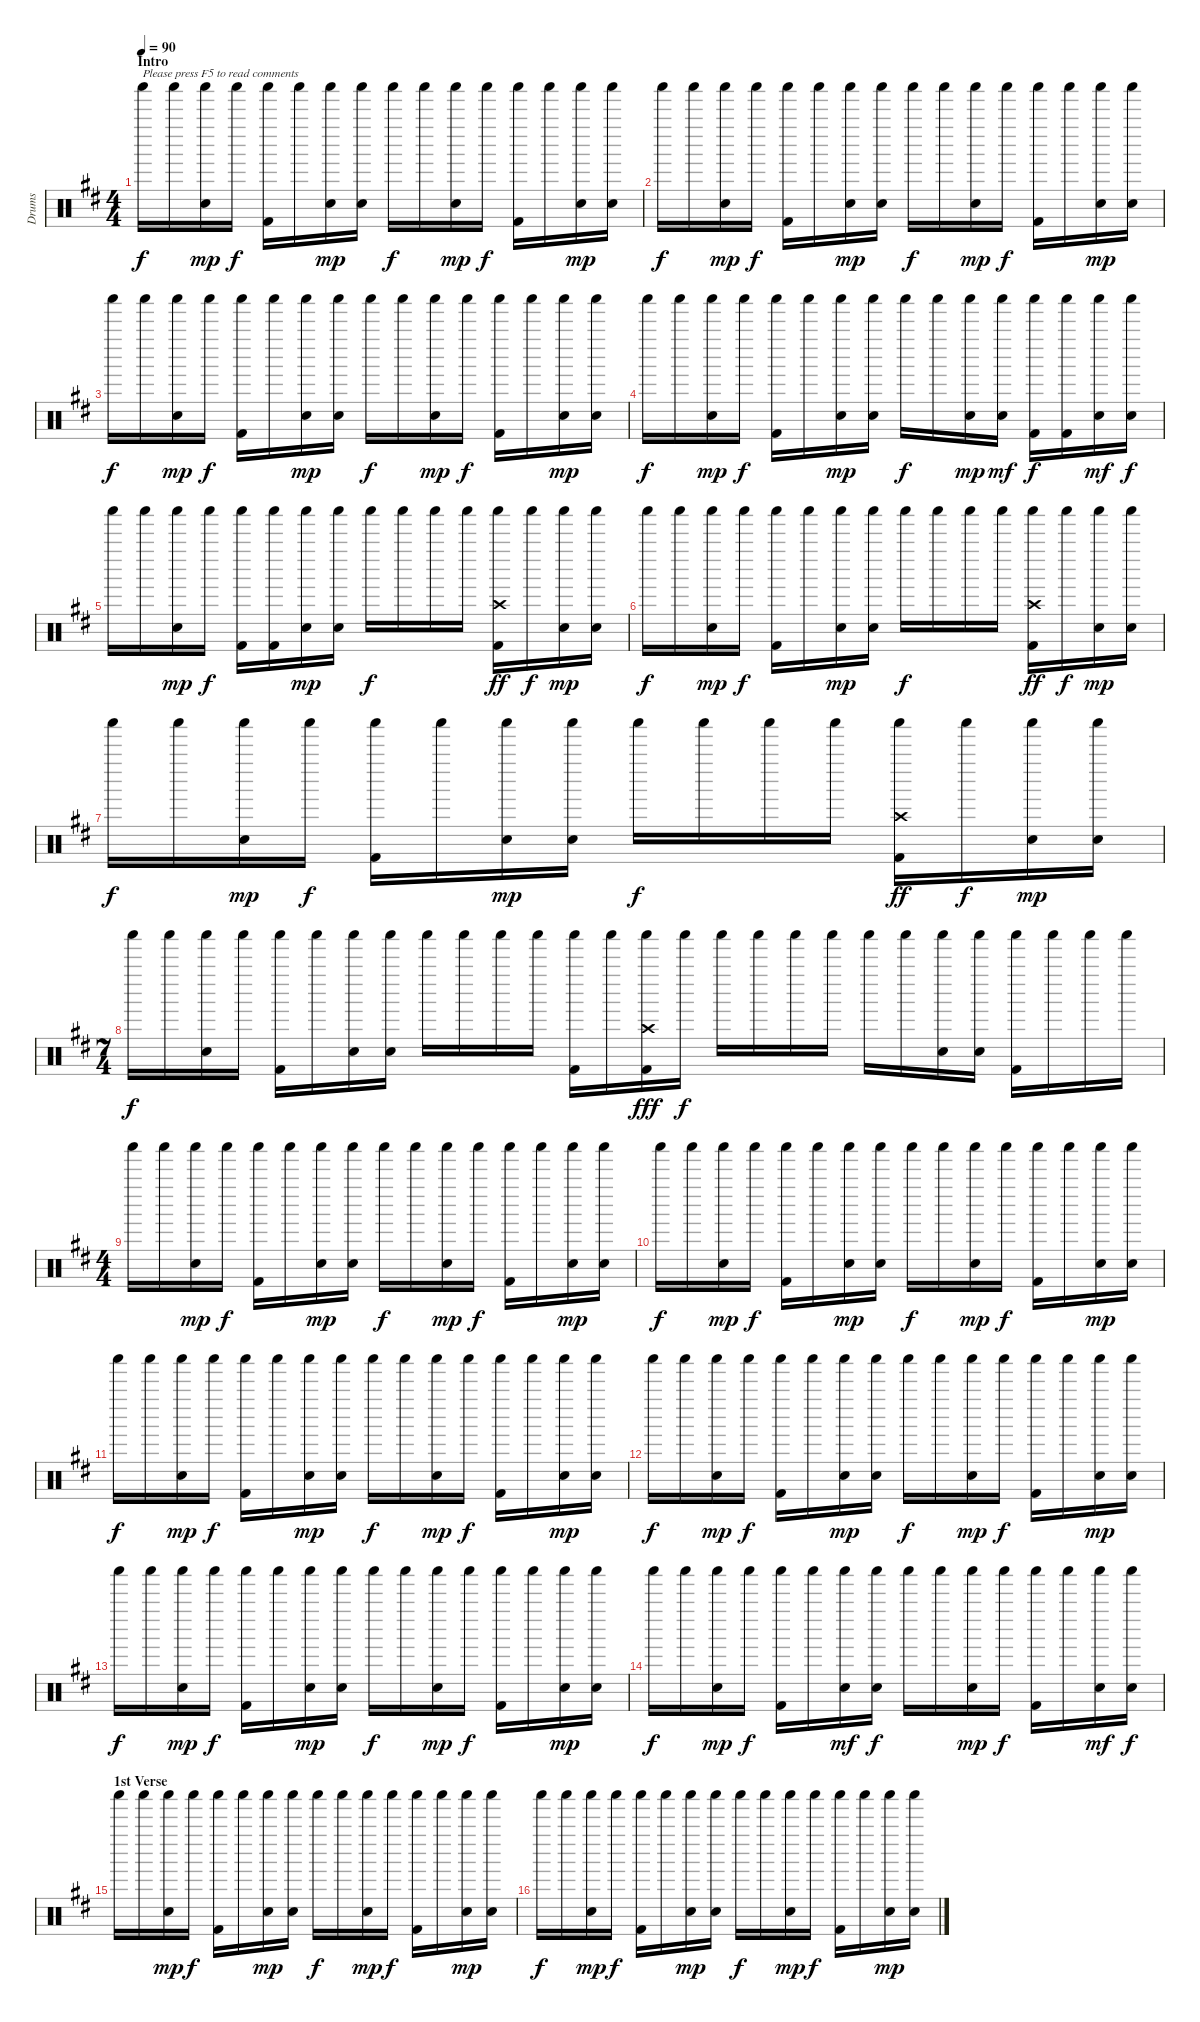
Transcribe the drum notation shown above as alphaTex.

\track ("Drums" "Drums") {instrument percussion}
\staff {score}
\articulation defaults
\ts (4 4)
\section ("" "Intro")
\tempo 90
\clef neutral
\ks bminor "Shaker (hit)".16{txt "Please press F5 to read comments" dy f} "Shaker (hit)".16
("Shaker (hit)" "Electric Snare (hit)").16{dy mp} "Shaker (hit)".16{dy f} ("Shaker (hit)" "Kick (hit) 2").16 "Shaker (hit)".16 ("Shaker (hit)" "Electric Snare (hit)").16{dy mp} ("Shaker (hit)" "Electric Snare (hit)").16 "Shaker (hit)".16{dy f} "Shaker (hit)".16 ("Shaker (hit)" "Electric Snare (hit)").16{dy mp} "Shaker (hit)".16{dy f} ("Shaker (hit)" "Kick (hit) 2").16 "Shaker (hit)".16 ("Shaker (hit)" "Electric Snare (hit)").16{dy mp} ("Shaker (hit)" "Electric Snare (hit)").16 |
"Shaker (hit)".16{dy f} "Shaker (hit)".16 ("Shaker (hit)" "Electric Snare (hit)").16{dy mp} "Shaker (hit)".16{dy f} ("Shaker (hit)" "Kick (hit) 2").16 "Shaker (hit)".16 ("Shaker (hit)" "Electric Snare (hit)").16{dy mp} ("Shaker (hit)" "Electric Snare (hit)").16 "Shaker (hit)".16{dy f} "Shaker (hit)".16 ("Shaker (hit)" "Electric Snare (hit)").16{dy mp} "Shaker (hit)".16{dy f} ("Shaker (hit)" "Kick (hit) 2").16 "Shaker (hit)".16 ("Shaker (hit)" "Electric Snare (hit)").16{dy mp} ("Shaker (hit)" "Electric Snare (hit)").16 |
"Shaker (hit)".16{dy f} "Shaker (hit)".16 ("Shaker (hit)" "Electric Snare (hit)").16{dy mp} "Shaker (hit)".16{dy f} ("Shaker (hit)" "Kick (hit) 2").16 "Shaker (hit)".16 ("Shaker (hit)" "Electric Snare (hit)").16{dy mp} ("Shaker (hit)" "Electric Snare (hit)").16 "Shaker (hit)".16{dy f} "Shaker (hit)".16 ("Shaker (hit)" "Electric Snare (hit)").16{dy mp} "Shaker (hit)".16{dy f} ("Shaker (hit)" "Kick (hit) 2").16 "Shaker (hit)".16 ("Shaker (hit)" "Electric Snare (hit)").16{dy mp} ("Shaker (hit)" "Electric Snare (hit)").16 |
"Shaker (hit)".16{dy f} "Shaker (hit)".16 ("Shaker (hit)" "Electric Snare (hit)").16{dy mp} "Shaker (hit)".16{dy f} ("Shaker (hit)" "Kick (hit) 2").16 "Shaker (hit)".16 ("Shaker (hit)" "Electric Snare (hit)").16{dy mp} ("Shaker (hit)" "Electric Snare (hit)").16 "Shaker (hit)".16{dy f} "Shaker (hit)".16 ("Shaker (hit)" "Electric Snare (hit)").16{dy mp} ("Shaker (hit)" "Electric Snare (hit)").16{dy mf} ("Shaker (hit)" "Kick (hit) 2").16{dy f} ("Shaker (hit)" "Kick (hit) 2").16 ("Shaker (hit)" "Electric Snare (hit)").16{dy mf} ("Shaker (hit)" "Electric Snare (hit)").16{dy f} |
"Shaker (hit)".16 "Shaker (hit)".16 ("Shaker (hit)" "Electric Snare (hit)").16{dy mp} "Shaker (hit)".16{dy f} ("Shaker (hit)" "Kick (hit) 2").16 ("Shaker (hit)" "Kick (hit) 2").16 ("Shaker (hit)" "Electric Snare (hit)").16{dy mp} ("Shaker (hit)" "Electric Snare (hit)").16 "Shaker (hit)".16{dy f} "Shaker (hit)".16 "Shaker (hit)".16 "Shaker (hit)".16 ("Shaker (hit)" "Crash high (hit)" "Kick (hit) 2").16{dy ff} "Shaker (hit)".16{dy f} ("Shaker (hit)" "Electric Snare (hit)").16{dy mp} ("Shaker (hit)" "Electric Snare (hit)").16 |
"Shaker (hit)".16{dy f} "Shaker (hit)".16 ("Shaker (hit)" "Electric Snare (hit)").16{dy mp} "Shaker (hit)".16{dy f} ("Shaker (hit)" "Kick (hit) 2").16 "Shaker (hit)".16 ("Shaker (hit)" "Electric Snare (hit)").16{dy mp} ("Shaker (hit)" "Electric Snare (hit)").16 "Shaker (hit)".16{dy f} "Shaker (hit)".16 "Shaker (hit)".16 "Shaker (hit)".16 ("Shaker (hit)" "Crash high (hit)" "Kick (hit) 2").16{dy ff} "Shaker (hit)".16{dy f} ("Shaker (hit)" "Electric Snare (hit)").16{dy mp} ("Shaker (hit)" "Electric Snare (hit)").16 |
"Shaker (hit)".16{dy f} "Shaker (hit)".16 ("Shaker (hit)" "Electric Snare (hit)").16{dy mp} "Shaker (hit)".16{dy f} ("Shaker (hit)" "Kick (hit) 2").16 "Shaker (hit)".16 ("Shaker (hit)" "Electric Snare (hit)").16{dy mp} ("Shaker (hit)" "Electric Snare (hit)").16 "Shaker (hit)".16{dy f} "Shaker (hit)".16 "Shaker (hit)".16 "Shaker (hit)".16 ("Shaker (hit)" "Crash high (hit)" "Kick (hit) 2").16{dy ff} "Shaker (hit)".16{dy f} ("Shaker (hit)" "Electric Snare (hit)").16{dy mp} ("Shaker (hit)" "Electric Snare (hit)").16 |
\ts (7 4)
"Shaker (hit)".16{dy f} "Shaker (hit)".16 ("Shaker (hit)" "Electric Snare (hit)").16 "Shaker (hit)".16 ("Shaker (hit)" "Kick (hit) 2").16 "Shaker (hit)".16 ("Shaker (hit)" "Electric Snare (hit)").16 ("Shaker (hit)" "Electric Snare (hit)").16 "Shaker (hit)".16 "Shaker (hit)".16 "Shaker (hit)".16 "Shaker (hit)".16 ("Shaker (hit)" "Kick (hit) 2").16 "Shaker (hit)".16 ("Shaker (hit)" "Crash high (hit)" "Kick (hit) 2").16{dy fff} "Shaker (hit)".16{dy f} "Shaker (hit)".16 "Shaker (hit)".16 "Shaker (hit)".16 "Shaker (hit)".16 "Shaker (hit)".16 "Shaker (hit)".16 ("Shaker (hit)" "Electric Snare (hit)").16 ("Shaker (hit)" "Electric Snare (hit)").16 ("Shaker (hit)" "Kick (hit) 2").16 "Shaker (hit)".16 "Shaker (hit)".16 "Shaker (hit)".16 |
\ts (4 4)
"Shaker (hit)".16 "Shaker (hit)".16 ("Shaker (hit)" "Electric Snare (hit)").16{dy mp} "Shaker (hit)".16{dy f} ("Shaker (hit)" "Kick (hit) 2").16 "Shaker (hit)".16 ("Shaker (hit)" "Electric Snare (hit)").16{dy mp} ("Shaker (hit)" "Electric Snare (hit)").16 "Shaker (hit)".16{dy f} "Shaker (hit)".16 ("Shaker (hit)" "Electric Snare (hit)").16{dy mp} "Shaker (hit)".16{dy f} ("Shaker (hit)" "Kick (hit) 2").16 "Shaker (hit)".16 ("Shaker (hit)" "Electric Snare (hit)").16{dy mp} ("Shaker (hit)" "Electric Snare (hit)").16 |
"Shaker (hit)".16{dy f} "Shaker (hit)".16 ("Shaker (hit)" "Electric Snare (hit)").16{dy mp} "Shaker (hit)".16{dy f} ("Shaker (hit)" "Kick (hit) 2").16 "Shaker (hit)".16 ("Shaker (hit)" "Electric Snare (hit)").16{dy mp} ("Shaker (hit)" "Electric Snare (hit)").16 "Shaker (hit)".16{dy f} "Shaker (hit)".16 ("Shaker (hit)" "Electric Snare (hit)").16{dy mp} "Shaker (hit)".16{dy f} ("Shaker (hit)" "Kick (hit) 2").16 "Shaker (hit)".16 ("Shaker (hit)" "Electric Snare (hit)").16{dy mp} ("Shaker (hit)" "Electric Snare (hit)").16 |
"Shaker (hit)".16{dy f} "Shaker (hit)".16 ("Shaker (hit)" "Electric Snare (hit)").16{dy mp} "Shaker (hit)".16{dy f} ("Shaker (hit)" "Kick (hit) 2").16 "Shaker (hit)".16 ("Shaker (hit)" "Electric Snare (hit)").16{dy mp} ("Shaker (hit)" "Electric Snare (hit)").16 "Shaker (hit)".16{dy f} "Shaker (hit)".16 ("Shaker (hit)" "Electric Snare (hit)").16{dy mp} "Shaker (hit)".16{dy f} ("Shaker (hit)" "Kick (hit) 2").16 "Shaker (hit)".16 ("Shaker (hit)" "Electric Snare (hit)").16{dy mp} ("Shaker (hit)" "Electric Snare (hit)").16 |
"Shaker (hit)".16{dy f} "Shaker (hit)".16 ("Shaker (hit)" "Electric Snare (hit)").16{dy mp} "Shaker (hit)".16{dy f} ("Shaker (hit)" "Kick (hit) 2").16 "Shaker (hit)".16 ("Shaker (hit)" "Electric Snare (hit)").16{dy mp} ("Shaker (hit)" "Electric Snare (hit)").16 "Shaker (hit)".16{dy f} "Shaker (hit)".16 ("Shaker (hit)" "Electric Snare (hit)").16{dy mp} "Shaker (hit)".16{dy f} ("Shaker (hit)" "Kick (hit) 2").16 "Shaker (hit)".16 ("Shaker (hit)" "Electric Snare (hit)").16{dy mp} ("Shaker (hit)" "Electric Snare (hit)").16 |
"Shaker (hit)".16{dy f} "Shaker (hit)".16 ("Shaker (hit)" "Electric Snare (hit)").16{dy mp} "Shaker (hit)".16{dy f} ("Shaker (hit)" "Kick (hit) 2").16 "Shaker (hit)".16 ("Shaker (hit)" "Electric Snare (hit)").16{dy mp} ("Shaker (hit)" "Electric Snare (hit)").16 "Shaker (hit)".16{dy f} "Shaker (hit)".16 ("Shaker (hit)" "Electric Snare (hit)").16{dy mp} "Shaker (hit)".16{dy f} ("Shaker (hit)" "Kick (hit) 2").16 "Shaker (hit)".16 ("Shaker (hit)" "Electric Snare (hit)").16{dy mp} ("Shaker (hit)" "Electric Snare (hit)").16 |
"Shaker (hit)".16{dy f} "Shaker (hit)".16 ("Shaker (hit)" "Electric Snare (hit)").16{dy mp} "Shaker (hit)".16{dy f} ("Shaker (hit)" "Kick (hit) 2").16 "Shaker (hit)".16 ("Shaker (hit)" "Electric Snare (hit)").16{dy mf} ("Shaker (hit)" "Electric Snare (hit)").16{dy f} "Shaker (hit)".16 "Shaker (hit)".16 ("Shaker (hit)" "Electric Snare (hit)").16{dy mp} "Shaker (hit)".16{dy f} ("Shaker (hit)" "Kick (hit) 2").16 "Shaker (hit)".16 ("Shaker (hit)" "Electric Snare (hit)").16{dy mf} ("Shaker (hit)" "Electric Snare (hit)").16{dy f} |
\section ("" "1st Verse")
"Shaker (hit)".16 "Shaker (hit)".16 ("Shaker (hit)" "Electric Snare (hit)").16{dy mp} "Shaker (hit)".16{dy f} ("Shaker (hit)" "Kick (hit) 2").16 "Shaker (hit)".16 ("Shaker (hit)" "Electric Snare (hit)").16{dy mp} ("Shaker (hit)" "Electric Snare (hit)").16 "Shaker (hit)".16{dy f} "Shaker (hit)".16 ("Shaker (hit)" "Electric Snare (hit)").16{dy mp} "Shaker (hit)".16{dy f} ("Shaker (hit)" "Kick (hit) 2").16 "Shaker (hit)".16 ("Shaker (hit)" "Electric Snare (hit)").16{dy mp} ("Shaker (hit)" "Electric Snare (hit)").16 |
"Shaker (hit)".16{dy f} "Shaker (hit)".16 ("Shaker (hit)" "Electric Snare (hit)").16{dy mp} "Shaker (hit)".16{dy f} ("Shaker (hit)" "Kick (hit) 2").16 "Shaker (hit)".16 ("Shaker (hit)" "Electric Snare (hit)").16{dy mp} ("Shaker (hit)" "Electric Snare (hit)").16 "Shaker (hit)".16{dy f} "Shaker (hit)".16 ("Shaker (hit)" "Electric Snare (hit)").16{dy mp} "Shaker (hit)".16{dy f} ("Shaker (hit)" "Kick (hit) 2").16 "Shaker (hit)".16 ("Shaker (hit)" "Electric Snare (hit)").16{dy mp} ("Shaker (hit)" "Electric Snare (hit)").16
